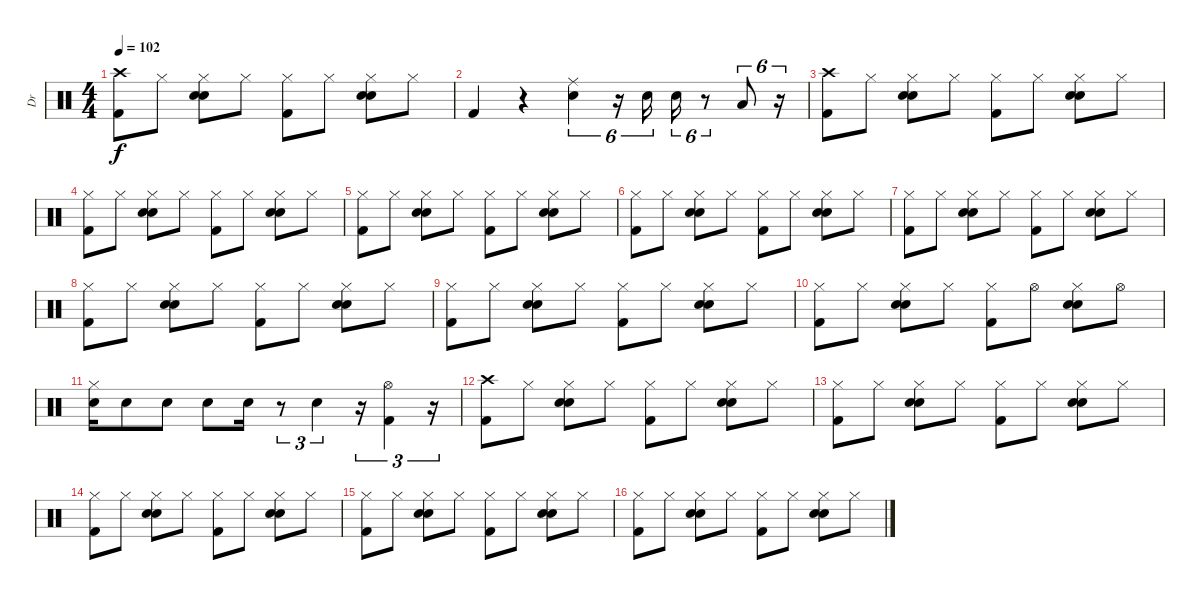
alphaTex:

\track ("Dr" "Dr") {instrument percussion}
\staff {score}
\articulation defaults
\ts (4 4)
\tempo 102
\clef neutral
\ks c
("Crash high (hit)" "Kick (hit) 2").8{dy f} "Hi-Hat (closed)".8 ("Hi-Hat (closed)" "Electric Snare (hit)" "Hand Clap (hit)").8 "Hi-Hat (closed)".8 ("Hi-Hat (closed)" "Kick (hit) 2").8 "Hi-Hat (closed)".8 ("Hi-Hat (closed)" "Electric Snare (hit)" "Hand Clap (hit)").8 "Hi-Hat (closed)".8 |
"Kick (hit) 2".4 r.4 ("Ride (middle)" "Electric Snare (hit)").4{tu (6 4)} r.16{tu (6 4)} "Electric Snare (hit)".16{tu (6 4)} "Electric Snare (hit)".16{tu (6 4)} r.8{tu (6 4)} "Low Tom (hit)".8{tu (6 4)} r.16{tu (6 4)} |
("Crash high (hit)" "Kick (hit) 2").8 "Hi-Hat (closed)".8 ("Hi-Hat (closed)" "Electric Snare (hit)" "Hand Clap (hit)").8 "Hi-Hat (closed)".8 ("Hi-Hat (closed)" "Kick (hit) 2").8 "Hi-Hat (closed)".8 ("Hi-Hat (closed)" "Electric Snare (hit)" "Hand Clap (hit)").8 "Hi-Hat (closed)".8 |
("Hi-Hat (closed)" "Kick (hit) 2").8 "Hi-Hat (closed)".8 ("Hi-Hat (closed)" "Electric Snare (hit)" "Hand Clap (hit)").8 "Hi-Hat (closed)".8 ("Hi-Hat (closed)" "Kick (hit) 2").8 "Hi-Hat (closed)".8 ("Hi-Hat (closed)" "Electric Snare (hit)" "Hand Clap (hit)").8 "Hi-Hat (closed)".8 |
("Hi-Hat (closed)" "Kick (hit) 2").8 "Hi-Hat (closed)".8 ("Hi-Hat (closed)" "Electric Snare (hit)" "Hand Clap (hit)").8 "Hi-Hat (closed)".8 ("Hi-Hat (closed)" "Kick (hit) 2").8 "Hi-Hat (closed)".8 ("Hi-Hat (closed)" "Electric Snare (hit)" "Hand Clap (hit)").8 "Hi-Hat (closed)".8 |
("Hi-Hat (closed)" "Kick (hit) 2").8 "Hi-Hat (closed)".8 ("Hi-Hat (closed)" "Electric Snare (hit)" "Hand Clap (hit)").8 "Hi-Hat (closed)".8 ("Hi-Hat (closed)" "Kick (hit) 2").8 "Hi-Hat (closed)".8 ("Hi-Hat (closed)" "Electric Snare (hit)" "Hand Clap (hit)").8 "Hi-Hat (closed)".8 |
("Hi-Hat (closed)" "Kick (hit) 2").8 "Hi-Hat (closed)".8 ("Hi-Hat (closed)" "Electric Snare (hit)" "Hand Clap (hit)").8 "Hi-Hat (closed)".8 ("Hi-Hat (closed)" "Kick (hit) 2").8 "Hi-Hat (closed)".8 ("Hi-Hat (closed)" "Electric Snare (hit)" "Hand Clap (hit)").8 "Hi-Hat (closed)".8 |
("Hi-Hat (closed)" "Kick (hit) 2").8 "Hi-Hat (closed)".8 ("Hi-Hat (closed)" "Electric Snare (hit)" "Hand Clap (hit)").8 "Hi-Hat (closed)".8 ("Hi-Hat (closed)" "Kick (hit) 2").8 "Hi-Hat (closed)".8 ("Hi-Hat (closed)" "Electric Snare (hit)" "Hand Clap (hit)").8 "Hi-Hat (closed)".8 |
("Hi-Hat (closed)" "Kick (hit) 2").8 "Hi-Hat (closed)".8 ("Hi-Hat (closed)" "Electric Snare (hit)" "Hand Clap (hit)").8 "Hi-Hat (closed)".8 ("Hi-Hat (closed)" "Kick (hit) 2").8 "Hi-Hat (closed)".8 ("Hi-Hat (closed)" "Electric Snare (hit)" "Hand Clap (hit)").8 "Hi-Hat (closed)".8 |
("Hi-Hat (closed)" "Kick (hit) 2").8 "Hi-Hat (closed)".8 ("Hi-Hat (closed)" "Electric Snare (hit)" "Hand Clap (hit)").8 "Hi-Hat (closed)".8 ("Hi-Hat (closed)" "Kick (hit) 2").8 "Hi-Hat (open)".8 ("Hi-Hat (closed)" "Electric Snare (hit)" "Hand Clap (hit)").8 "Hi-Hat (open)".8 |
("Hi-Hat (closed)" "Electric Snare (hit)").16 "Electric Snare (hit)".8 "Electric Snare (hit)".8 "Electric Snare (hit)".8 "Electric Snare (hit)".16 r.8{tu (3 2)} "Electric Snare (hit)".4{tu (3 2)} r.16{tu (3 2)} ("Hi-Hat (open)" "Kick (hit) 2").4{tu (3 2)} r.16{tu (3 2)} |
("Crash high (hit)" "Kick (hit) 2").8 "Hi-Hat (closed)".8 ("Hi-Hat (closed)" "Electric Snare (hit)" "Hand Clap (hit)").8 "Hi-Hat (closed)".8 ("Hi-Hat (closed)" "Kick (hit) 2").8 "Hi-Hat (closed)".8 ("Hi-Hat (closed)" "Electric Snare (hit)" "Hand Clap (hit)").8 "Hi-Hat (closed)".8 |
("Hi-Hat (closed)" "Kick (hit) 2").8 "Hi-Hat (closed)".8 ("Hi-Hat (closed)" "Electric Snare (hit)" "Hand Clap (hit)").8 "Hi-Hat (closed)".8 ("Hi-Hat (closed)" "Kick (hit) 2").8 "Hi-Hat (closed)".8 ("Hi-Hat (closed)" "Electric Snare (hit)" "Hand Clap (hit)").8 "Hi-Hat (closed)".8 |
("Hi-Hat (closed)" "Kick (hit) 2").8 "Hi-Hat (closed)".8 ("Hi-Hat (closed)" "Electric Snare (hit)" "Hand Clap (hit)").8 "Hi-Hat (closed)".8 ("Hi-Hat (closed)" "Kick (hit) 2").8 "Hi-Hat (closed)".8 ("Hi-Hat (closed)" "Electric Snare (hit)" "Hand Clap (hit)").8 "Hi-Hat (closed)".8 |
("Hi-Hat (closed)" "Kick (hit) 2").8 "Hi-Hat (closed)".8 ("Hi-Hat (closed)" "Electric Snare (hit)" "Hand Clap (hit)").8 "Hi-Hat (closed)".8 ("Hi-Hat (closed)" "Kick (hit) 2").8 "Hi-Hat (closed)".8 ("Hi-Hat (closed)" "Electric Snare (hit)" "Hand Clap (hit)").8 "Hi-Hat (closed)".8 |
("Hi-Hat (closed)" "Kick (hit) 2").8 "Hi-Hat (closed)".8 ("Hi-Hat (closed)" "Electric Snare (hit)" "Hand Clap (hit)").8 "Hi-Hat (closed)".8 ("Hi-Hat (closed)" "Kick (hit) 2").8 "Hi-Hat (closed)".8 ("Hi-Hat (closed)" "Electric Snare (hit)" "Hand Clap (hit)").8 "Hi-Hat (closed)".8
